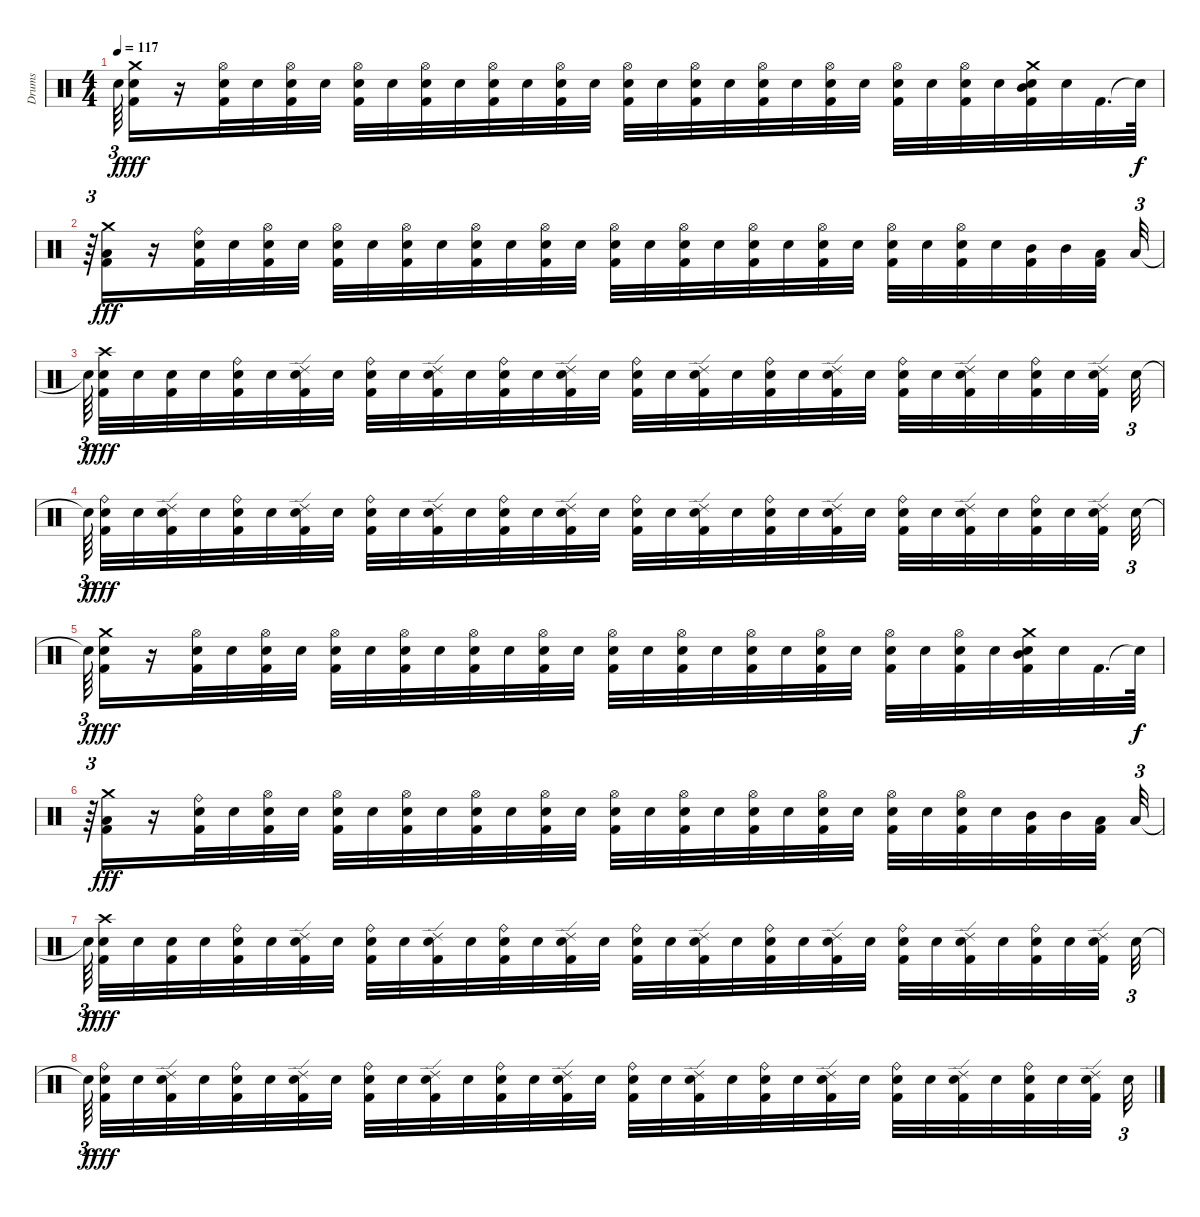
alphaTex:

\track ("Drums" "Drums") {instrument percussion}
\staff {score}
\articulation defaults
\ts (4 4)
\tempo 117
\clef neutral
\ks c "Snare (hit)"{t}.64{tu (3 2) dy f}
("Kick (hit) 2" "Snare (hit) 2" "Crash medium (hit)").16{dy fff} r.16 ("Kick (hit) 2" "Snare (hit) 2" "Hi-Hat (open)").32 "Snare (hit) 2".32 ("Kick (hit) 2" "Snare (hit) 2" "Hi-Hat (open)").32 "Snare (hit) 2".32 ("Kick (hit) 2" "Snare (hit) 2" "Hi-Hat (open)").32 "Snare (hit) 2".32 ("Kick (hit) 2" "Snare (hit) 2" "Hi-Hat (open)").32 "Snare (hit) 2".32 ("Kick (hit) 2" "Snare (hit) 2" "Hi-Hat (open)").32 "Snare (hit) 2".32 ("Kick (hit) 2" "Snare (hit) 2" "Hi-Hat (open)").32 "Snare (hit) 2".32 ("Kick (hit) 2" "Snare (hit) 2" "Hi-Hat (open)").32 "Snare (hit) 2".32 ("Kick (hit) 2" "Snare (hit) 2" "Hi-Hat (open)").32 "Snare (hit) 2".32 ("Kick (hit) 2" "Snare (hit) 2" "Hi-Hat (open)").32 "Snare (hit) 2".32 ("Kick (hit) 2" "Snare (hit) 2" "Hi-Hat (open)").32 "Snare (hit) 2".32 ("Kick (hit) 2" "Snare (hit) 2" "Hi-Hat (open)").32 "Snare (hit) 2".32 ("Kick (hit) 2" "Snare (hit) 2" "Hi-Hat (open)").32 "Snare (hit) 2".32 ("Kick (hit) 2" "Snare (hit) 2" "Mid Tom (hit)" "Crash medium (hit)").32 "Snare (hit) 2".32 "Kick (hit) 2".32{d} "Snare (hit)"{t}.64{dy f} |
r.64{tu (3 2)} ("Kick (hit) 2" "Low Tom (hit)" "Crash medium (hit)").16{dy fff} r.16 ("Kick (hit) 2" "Snare (hit) 2" "Ride (bell)").32 "Snare (hit) 2".32 ("Kick (hit) 2" "Snare (hit) 2" "Hi-Hat (open)").32 "Snare (hit) 2".32 ("Kick (hit) 2" "Snare (hit) 2" "Hi-Hat (open)").32 "Snare (hit) 2".32 ("Kick (hit) 2" "Snare (hit) 2" "Hi-Hat (open)").32 "Snare (hit) 2".32 ("Kick (hit) 2" "Snare (hit) 2" "Hi-Hat (open)").32 "Snare (hit) 2".32 ("Kick (hit) 2" "Snare (hit) 2" "Hi-Hat (open)").32 "Snare (hit) 2".32 ("Kick (hit) 2" "Snare (hit) 2" "Hi-Hat (open)").32 "Snare (hit) 2".32 ("Kick (hit) 2" "Snare (hit) 2" "Hi-Hat (open)").32 "Snare (hit) 2".32 ("Kick (hit) 2" "Snare (hit) 2" "Hi-Hat (open)").32 "Snare (hit) 2".32 ("Kick (hit) 2" "Snare (hit) 2" "Hi-Hat (open)").32 "Snare (hit) 2".32 ("Kick (hit) 2" "Snare (hit) 2" "Hi-Hat (open)").32 "Snare (hit) 2".32 ("Kick (hit) 2" "Snare (hit) 2" "Hi-Hat (open)").32 "Snare (hit) 2".32 ("Kick (hit) 2" "Mid Tom (hit)").32 "Mid Tom (hit)".32 ("Kick (hit) 2" "Low Tom (hit)").32{beam splitsecondary} "Low Tom (hit)".32{tu (3 2)} |
"Snare (hit)"{t}.64{tu (3 2) dy f beam splitsecondary} ("Kick (hit) 2" "Snare (hit) 2" "Crash high (hit)").32{dy fff} "Snare (hit) 2".32 ("Kick (hit) 2" "Snare (hit) 2").32 "Snare (hit) 2".32 ("Kick (hit) 2" "Snare (hit) 2" "Ride (bell)").32 "Snare (hit) 2".32 ("Kick (hit) 2" "Snare (hit) 2" "Ride (edge) 2").32 "Snare (hit) 2".32 ("Kick (hit) 2" "Snare (hit) 2" "Ride (bell)").32 "Snare (hit) 2".32 ("Kick (hit) 2" "Snare (hit) 2" "Ride (edge) 2").32 "Snare (hit) 2".32 ("Kick (hit) 2" "Snare (hit) 2" "Ride (bell)").32 "Snare (hit) 2".32 ("Kick (hit) 2" "Snare (hit) 2" "Ride (edge) 2").32 "Snare (hit) 2".32 ("Kick (hit) 2" "Snare (hit) 2" "Ride (bell)").32 "Snare (hit) 2".32 ("Kick (hit) 2" "Snare (hit) 2" "Ride (edge) 2").32 "Snare (hit) 2".32 ("Kick (hit) 2" "Snare (hit) 2" "Ride (bell)").32 "Snare (hit) 2".32 ("Kick (hit) 2" "Snare (hit) 2" "Ride (edge) 2").32 "Snare (hit) 2".32 ("Kick (hit) 2" "Snare (hit) 2" "Ride (bell)").32 "Snare (hit) 2".32 ("Kick (hit) 2" "Snare (hit) 2" "Ride (edge) 2").32 "Snare (hit) 2".32 ("Kick (hit) 2" "Snare (hit) 2" "Ride (bell)").32 "Snare (hit) 2".32 ("Kick (hit) 2" "Snare (hit) 2" "Ride (edge) 2").32{beam splitsecondary} "Snare (hit) 2".32{tu (3 2)} |
"Snare (hit)"{t}.64{tu (3 2) dy f beam splitsecondary} ("Kick (hit) 2" "Snare (hit) 2" "Ride (bell)").32{dy fff} "Snare (hit) 2".32 ("Kick (hit) 2" "Snare (hit) 2" "Ride (edge) 2").32 "Snare (hit) 2".32 ("Kick (hit) 2" "Snare (hit) 2" "Ride (bell)").32 "Snare (hit) 2".32 ("Kick (hit) 2" "Snare (hit) 2" "Ride (edge) 2").32 "Snare (hit) 2".32 ("Kick (hit) 2" "Snare (hit) 2" "Ride (bell)").32 "Snare (hit) 2".32 ("Kick (hit) 2" "Snare (hit) 2" "Ride (edge) 2").32 "Snare (hit) 2".32 ("Kick (hit) 2" "Snare (hit) 2" "Ride (bell)").32 "Snare (hit) 2".32 ("Kick (hit) 2" "Snare (hit) 2" "Ride (edge) 2").32 "Snare (hit) 2".32 ("Kick (hit) 2" "Snare (hit) 2" "Ride (bell)").32 "Snare (hit) 2".32 ("Kick (hit) 2" "Snare (hit) 2" "Ride (edge) 2").32 "Snare (hit) 2".32 ("Kick (hit) 2" "Snare (hit) 2" "Ride (bell)").32 "Snare (hit) 2".32 ("Kick (hit) 2" "Snare (hit) 2" "Ride (edge) 2").32 "Snare (hit) 2".32 ("Kick (hit) 2" "Snare (hit) 2" "Ride (bell)").32 "Snare (hit) 2".32 ("Kick (hit) 2" "Snare (hit) 2" "Ride (edge) 2").32 "Snare (hit) 2".32 ("Kick (hit) 2" "Snare (hit) 2" "Ride (bell)").32 "Snare (hit) 2".32 ("Kick (hit) 2" "Snare (hit) 2" "Ride (edge) 2").32{beam splitsecondary} "Snare (hit) 2".32{tu (3 2)} |
"Snare (hit)"{t}.64{tu (3 2) dy f} ("Kick (hit) 2" "Snare (hit) 2" "Crash medium (hit)").16{dy fff} r.16 ("Kick (hit) 2" "Snare (hit) 2" "Hi-Hat (open)").32 "Snare (hit) 2".32 ("Kick (hit) 2" "Snare (hit) 2" "Hi-Hat (open)").32 "Snare (hit) 2".32 ("Kick (hit) 2" "Snare (hit) 2" "Hi-Hat (open)").32 "Snare (hit) 2".32 ("Kick (hit) 2" "Snare (hit) 2" "Hi-Hat (open)").32 "Snare (hit) 2".32 ("Kick (hit) 2" "Snare (hit) 2" "Hi-Hat (open)").32 "Snare (hit) 2".32 ("Kick (hit) 2" "Snare (hit) 2" "Hi-Hat (open)").32 "Snare (hit) 2".32 ("Kick (hit) 2" "Snare (hit) 2" "Hi-Hat (open)").32 "Snare (hit) 2".32 ("Kick (hit) 2" "Snare (hit) 2" "Hi-Hat (open)").32 "Snare (hit) 2".32 ("Kick (hit) 2" "Snare (hit) 2" "Hi-Hat (open)").32 "Snare (hit) 2".32 ("Kick (hit) 2" "Snare (hit) 2" "Hi-Hat (open)").32 "Snare (hit) 2".32 ("Kick (hit) 2" "Snare (hit) 2" "Hi-Hat (open)").32 "Snare (hit) 2".32 ("Kick (hit) 2" "Snare (hit) 2" "Hi-Hat (open)").32 "Snare (hit) 2".32 ("Kick (hit) 2" "Snare (hit) 2" "Mid Tom (hit)" "Crash medium (hit)").32 "Snare (hit) 2".32 "Kick (hit) 2".32{d} "Snare (hit)"{t}.64{dy f} |
r.64{tu (3 2)} ("Kick (hit) 2" "Low Tom (hit)" "Crash medium (hit)").16{dy fff} r.16 ("Kick (hit) 2" "Snare (hit) 2" "Ride (bell)").32 "Snare (hit) 2".32 ("Kick (hit) 2" "Snare (hit) 2" "Hi-Hat (open)").32 "Snare (hit) 2".32 ("Kick (hit) 2" "Snare (hit) 2" "Hi-Hat (open)").32 "Snare (hit) 2".32 ("Kick (hit) 2" "Snare (hit) 2" "Hi-Hat (open)").32 "Snare (hit) 2".32 ("Kick (hit) 2" "Snare (hit) 2" "Hi-Hat (open)").32 "Snare (hit) 2".32 ("Kick (hit) 2" "Snare (hit) 2" "Hi-Hat (open)").32 "Snare (hit) 2".32 ("Kick (hit) 2" "Snare (hit) 2" "Hi-Hat (open)").32 "Snare (hit) 2".32 ("Kick (hit) 2" "Snare (hit) 2" "Hi-Hat (open)").32 "Snare (hit) 2".32 ("Kick (hit) 2" "Snare (hit) 2" "Hi-Hat (open)").32 "Snare (hit) 2".32 ("Kick (hit) 2" "Snare (hit) 2" "Hi-Hat (open)").32 "Snare (hit) 2".32 ("Kick (hit) 2" "Snare (hit) 2" "Hi-Hat (open)").32 "Snare (hit) 2".32 ("Kick (hit) 2" "Snare (hit) 2" "Hi-Hat (open)").32 "Snare (hit) 2".32 ("Kick (hit) 2" "Mid Tom (hit)").32 "Mid Tom (hit)".32 ("Kick (hit) 2" "Low Tom (hit)").32{beam splitsecondary} "Low Tom (hit)".32{tu (3 2)} |
"Snare (hit)"{t}.64{tu (3 2) dy f beam splitsecondary} ("Kick (hit) 2" "Snare (hit) 2" "Crash high (hit)").32{dy fff} "Snare (hit) 2".32 ("Kick (hit) 2" "Snare (hit) 2").32 "Snare (hit) 2".32 ("Kick (hit) 2" "Snare (hit) 2" "Ride (bell)").32 "Snare (hit) 2".32 ("Kick (hit) 2" "Snare (hit) 2" "Ride (edge) 2").32 "Snare (hit) 2".32 ("Kick (hit) 2" "Snare (hit) 2" "Ride (bell)").32 "Snare (hit) 2".32 ("Kick (hit) 2" "Snare (hit) 2" "Ride (edge) 2").32 "Snare (hit) 2".32 ("Kick (hit) 2" "Snare (hit) 2" "Ride (bell)").32 "Snare (hit) 2".32 ("Kick (hit) 2" "Snare (hit) 2" "Ride (edge) 2").32 "Snare (hit) 2".32 ("Kick (hit) 2" "Snare (hit) 2" "Ride (bell)").32 "Snare (hit) 2".32 ("Kick (hit) 2" "Snare (hit) 2" "Ride (edge) 2").32 "Snare (hit) 2".32 ("Kick (hit) 2" "Snare (hit) 2" "Ride (bell)").32 "Snare (hit) 2".32 ("Kick (hit) 2" "Snare (hit) 2" "Ride (edge) 2").32 "Snare (hit) 2".32 ("Kick (hit) 2" "Snare (hit) 2" "Ride (bell)").32 "Snare (hit) 2".32 ("Kick (hit) 2" "Snare (hit) 2" "Ride (edge) 2").32 "Snare (hit) 2".32 ("Kick (hit) 2" "Snare (hit) 2" "Ride (bell)").32 "Snare (hit) 2".32 ("Kick (hit) 2" "Snare (hit) 2" "Ride (edge) 2").32{beam splitsecondary} "Snare (hit) 2".32{tu (3 2)} |
"Snare (hit)"{t}.64{tu (3 2) dy f beam splitsecondary} ("Kick (hit) 2" "Snare (hit) 2" "Ride (bell)").32{dy fff} "Snare (hit) 2".32 ("Kick (hit) 2" "Snare (hit) 2" "Ride (edge) 2").32 "Snare (hit) 2".32 ("Kick (hit) 2" "Snare (hit) 2" "Ride (bell)").32 "Snare (hit) 2".32 ("Kick (hit) 2" "Snare (hit) 2" "Ride (edge) 2").32 "Snare (hit) 2".32 ("Kick (hit) 2" "Snare (hit) 2" "Ride (bell)").32 "Snare (hit) 2".32 ("Kick (hit) 2" "Snare (hit) 2" "Ride (edge) 2").32 "Snare (hit) 2".32 ("Kick (hit) 2" "Snare (hit) 2" "Ride (bell)").32 "Snare (hit) 2".32 ("Kick (hit) 2" "Snare (hit) 2" "Ride (edge) 2").32 "Snare (hit) 2".32 ("Kick (hit) 2" "Snare (hit) 2" "Ride (bell)").32 "Snare (hit) 2".32 ("Kick (hit) 2" "Snare (hit) 2" "Ride (edge) 2").32 "Snare (hit) 2".32 ("Kick (hit) 2" "Snare (hit) 2" "Ride (bell)").32 "Snare (hit) 2".32 ("Kick (hit) 2" "Snare (hit) 2" "Ride (edge) 2").32 "Snare (hit) 2".32 ("Kick (hit) 2" "Snare (hit) 2" "Ride (bell)").32 "Snare (hit) 2".32 ("Kick (hit) 2" "Snare (hit) 2" "Ride (edge) 2").32 "Snare (hit) 2".32 ("Kick (hit) 2" "Snare (hit) 2" "Ride (bell)").32 "Snare (hit) 2".32 ("Kick (hit) 2" "Snare (hit) 2" "Ride (edge) 2").32{beam splitsecondary} "Snare (hit) 2".32{tu (3 2)}
